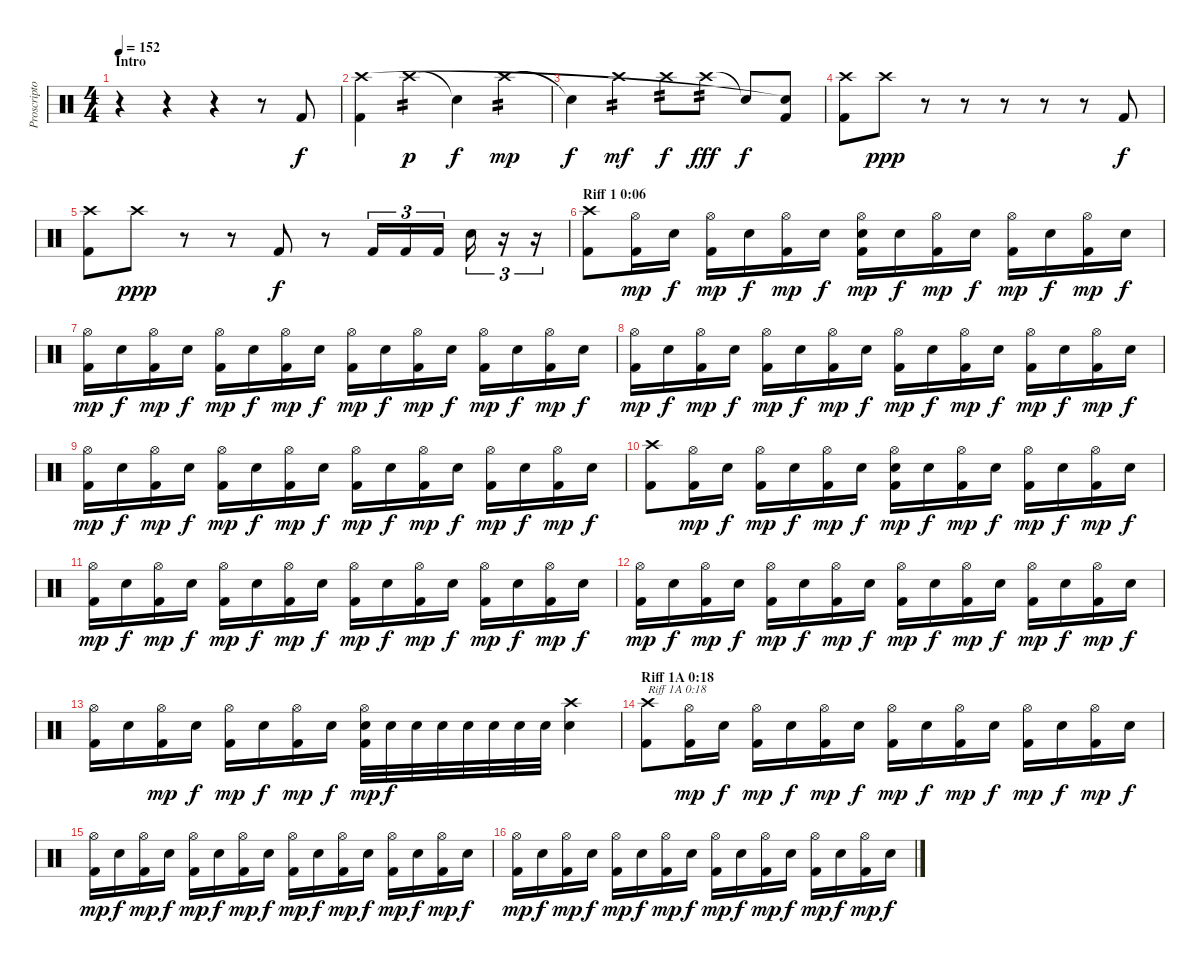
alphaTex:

\track ("Proscriptor (Drums)" "Proscripto") {instrument percussion}
\staff {score}
\articulation defaults
\ts (4 4)
\section ("" "Intro")
\tempo 152
\clef neutral
\ks c
r.4{dy f} r.4 r.4 r.8 "Kick (hit) 2".8 |
("Kick (hit) 2" "Crash high (hit)").4 "Crash high (hit)".4{tp 2 dy p} "Snare (hit)"{t}.4{dy f} "Crash high (hit)".4{tp 2 dy mp} |
"Snare (hit)"{t}.4{dy f} "Crash high (hit)".4{tp 2 dy mf} "Crash high (hit)".8{tp 2 dy f} "Crash high (hit)".8{tp 2 dy fff} "Snare (hit)"{t}.8{dy f} ("Kick (hit) 2" "Snare (hit)"{t}).8 |
("Kick (hit) 2" "Crash high (hit)").8 "Crash high (hit)".8{dy ppp} r.8 r.8 r.8 r.8 r.8 "Kick (hit) 2".8{dy f} |
("Kick (hit) 2" "Crash high (hit)").8 "Crash high (hit)".8{dy ppp} r.8 r.8 "Kick (hit) 2".8{dy f} r.8 "Kick (hit) 2".16{tu (3 2)} "Kick (hit) 2".16{tu (3 2)} "Kick (hit) 2".16{tu (3 2)} "Electric Snare (hit)".16{tu (3 2)} r.16{tu (3 2)} r.16{tu (3 2)} |
\section ("" "Riff 1 0:06")
("Kick (hit) 2" "Crash high (hit)").8 ("Kick (hit) 2" "Hi-Hat (open)").16{dy mp} "Electric Snare (hit)".16{dy f} ("Kick (hit) 2" "Hi-Hat (open)").16{dy mp} "Electric Snare (hit)".16{dy f} ("Kick (hit) 2" "Hi-Hat (open)").16{dy mp} "Electric Snare (hit)".16{dy f} ("Kick (hit) 2" "Electric Snare (hit)" "Hi-Hat (open)").16{dy mp} "Electric Snare (hit)".16{dy f} ("Kick (hit) 2" "Hi-Hat (open)").16{dy mp} "Electric Snare (hit)".16{dy f} ("Kick (hit) 2" "Hi-Hat (open)").16{dy mp} "Electric Snare (hit)".16{dy f} ("Kick (hit) 2" "Hi-Hat (open)").16{dy mp} "Electric Snare (hit)".16{dy f} |
("Kick (hit) 2" "Hi-Hat (open)").16{dy mp} "Electric Snare (hit)".16{dy f} ("Kick (hit) 2" "Hi-Hat (open)").16{dy mp} "Electric Snare (hit)".16{dy f} ("Kick (hit) 2" "Hi-Hat (open)").16{dy mp} "Electric Snare (hit)".16{dy f} ("Kick (hit) 2" "Hi-Hat (open)").16{dy mp} "Electric Snare (hit)".16{dy f} ("Kick (hit) 2" "Hi-Hat (open)").16{dy mp} "Electric Snare (hit)".16{dy f} ("Kick (hit) 2" "Hi-Hat (open)").16{dy mp} "Electric Snare (hit)".16{dy f} ("Kick (hit) 2" "Hi-Hat (open)").16{dy mp} "Electric Snare (hit)".16{dy f} ("Kick (hit) 2" "Hi-Hat (open)").16{dy mp} "Electric Snare (hit)".16{dy f} |
("Kick (hit) 2" "Hi-Hat (open)").16{dy mp} "Electric Snare (hit)".16{dy f} ("Kick (hit) 2" "Hi-Hat (open)").16{dy mp} "Electric Snare (hit)".16{dy f} ("Kick (hit) 2" "Hi-Hat (open)").16{dy mp} "Electric Snare (hit)".16{dy f} ("Kick (hit) 2" "Hi-Hat (open)").16{dy mp} "Electric Snare (hit)".16{dy f} ("Kick (hit) 2" "Hi-Hat (open)").16{dy mp} "Electric Snare (hit)".16{dy f} ("Kick (hit) 2" "Hi-Hat (open)").16{dy mp} "Electric Snare (hit)".16{dy f} ("Kick (hit) 2" "Hi-Hat (open)").16{dy mp} "Electric Snare (hit)".16{dy f} ("Kick (hit) 2" "Hi-Hat (open)").16{dy mp} "Electric Snare (hit)".16{dy f} |
("Kick (hit) 2" "Hi-Hat (open)").16{dy mp} "Electric Snare (hit)".16{dy f} ("Kick (hit) 2" "Hi-Hat (open)").16{dy mp} "Electric Snare (hit)".16{dy f} ("Kick (hit) 2" "Hi-Hat (open)").16{dy mp} "Electric Snare (hit)".16{dy f} ("Kick (hit) 2" "Hi-Hat (open)").16{dy mp} "Electric Snare (hit)".16{dy f} ("Kick (hit) 2" "Hi-Hat (open)").16{dy mp} "Electric Snare (hit)".16{dy f} ("Kick (hit) 2" "Hi-Hat (open)").16{dy mp} "Electric Snare (hit)".16{dy f} ("Kick (hit) 2" "Hi-Hat (open)").16{dy mp} "Electric Snare (hit)".16{dy f} ("Kick (hit) 2" "Hi-Hat (open)").16{dy mp} "Electric Snare (hit)".16{dy f} |
("Kick (hit) 2" "Crash high (hit)").8 ("Kick (hit) 2" "Hi-Hat (open)").16{dy mp} "Electric Snare (hit)".16{dy f} ("Kick (hit) 2" "Hi-Hat (open)").16{dy mp} "Electric Snare (hit)".16{dy f} ("Kick (hit) 2" "Hi-Hat (open)").16{dy mp} "Electric Snare (hit)".16{dy f} ("Kick (hit) 2" "Electric Snare (hit)" "Hi-Hat (open)").16{dy mp} "Electric Snare (hit)".16{dy f} ("Kick (hit) 2" "Hi-Hat (open)").16{dy mp} "Electric Snare (hit)".16{dy f} ("Kick (hit) 2" "Hi-Hat (open)").16{dy mp} "Electric Snare (hit)".16{dy f} ("Kick (hit) 2" "Hi-Hat (open)").16{dy mp} "Electric Snare (hit)".16{dy f} |
("Kick (hit) 2" "Hi-Hat (open)").16{dy mp} "Electric Snare (hit)".16{dy f} ("Kick (hit) 2" "Hi-Hat (open)").16{dy mp} "Electric Snare (hit)".16{dy f} ("Kick (hit) 2" "Hi-Hat (open)").16{dy mp} "Electric Snare (hit)".16{dy f} ("Kick (hit) 2" "Hi-Hat (open)").16{dy mp} "Electric Snare (hit)".16{dy f} ("Kick (hit) 2" "Hi-Hat (open)").16{dy mp} "Electric Snare (hit)".16{dy f} ("Kick (hit) 2" "Hi-Hat (open)").16{dy mp} "Electric Snare (hit)".16{dy f} ("Kick (hit) 2" "Hi-Hat (open)").16{dy mp} "Electric Snare (hit)".16{dy f} ("Kick (hit) 2" "Hi-Hat (open)").16{dy mp} "Electric Snare (hit)".16{dy f} |
("Kick (hit) 2" "Hi-Hat (open)").16{dy mp} "Electric Snare (hit)".16{dy f} ("Kick (hit) 2" "Hi-Hat (open)").16{dy mp} "Electric Snare (hit)".16{dy f} ("Kick (hit) 2" "Hi-Hat (open)").16{dy mp} "Electric Snare (hit)".16{dy f} ("Kick (hit) 2" "Hi-Hat (open)").16{dy mp} "Electric Snare (hit)".16{dy f} ("Kick (hit) 2" "Hi-Hat (open)").16{dy mp} "Electric Snare (hit)".16{dy f} ("Kick (hit) 2" "Hi-Hat (open)").16{dy mp} "Electric Snare (hit)".16{dy f} ("Kick (hit) 2" "Hi-Hat (open)").16{dy mp} "Electric Snare (hit)".16{dy f} ("Kick (hit) 2" "Hi-Hat (open)").16{dy mp} "Electric Snare (hit)".16{dy f} |
("Kick (hit) 2" "Hi-Hat (open)").16 "Electric Snare (hit)".16 ("Kick (hit) 2" "Hi-Hat (open)").16{dy mp} "Electric Snare (hit)".16{dy f} ("Kick (hit) 2" "Hi-Hat (open)").16{dy mp} "Electric Snare (hit)".16{dy f} ("Kick (hit) 2" "Hi-Hat (open)").16{dy mp} "Electric Snare (hit)".16{dy f} ("Kick (hit) 2" "Electric Snare (hit)" "Hi-Hat (open)").32{dy mp} "Electric Snare (hit)".32{dy f} "Electric Snare (hit)".32 "Electric Snare (hit)".32 "Electric Snare (hit)".32 "Electric Snare (hit)".32 "Electric Snare (hit)".32 "Electric Snare (hit)".32 ("Electric Snare (hit)" "Crash high (hit)").4 |
\section ("" "Riff 1A 0:18")
("Kick (hit) 2" "Crash high (hit)").8{txt "Riff 1A 0:18"} ("Kick (hit) 2" "Hi-Hat (open)").16{dy mp} "Electric Snare (hit)".16{dy f} ("Kick (hit) 2" "Hi-Hat (open)").16{dy mp} "Electric Snare (hit)".16{dy f} ("Kick (hit) 2" "Hi-Hat (open)").16{dy mp} "Electric Snare (hit)".16{dy f} ("Kick (hit) 2" "Hi-Hat (open)").16{dy mp} "Electric Snare (hit)".16{dy f} ("Kick (hit) 2" "Hi-Hat (open)").16{dy mp} "Electric Snare (hit)".16{dy f} ("Kick (hit) 2" "Hi-Hat (open)").16{dy mp} "Electric Snare (hit)".16{dy f} ("Kick (hit) 2" "Hi-Hat (open)").16{dy mp} "Electric Snare (hit)".16{dy f} |
("Kick (hit) 2" "Hi-Hat (open)").16{dy mp} "Electric Snare (hit)".16{dy f} ("Kick (hit) 2" "Hi-Hat (open)").16{dy mp} "Electric Snare (hit)".16{dy f} ("Kick (hit) 2" "Hi-Hat (open)").16{dy mp} "Electric Snare (hit)".16{dy f} ("Kick (hit) 2" "Hi-Hat (open)").16{dy mp} "Electric Snare (hit)".16{dy f} ("Kick (hit) 2" "Hi-Hat (open)").16{dy mp} "Electric Snare (hit)".16{dy f} ("Kick (hit) 2" "Hi-Hat (open)").16{dy mp} "Electric Snare (hit)".16{dy f} ("Kick (hit) 2" "Hi-Hat (open)").16{dy mp} "Electric Snare (hit)".16{dy f} ("Kick (hit) 2" "Hi-Hat (open)").16{dy mp} "Electric Snare (hit)".16{dy f} |
("Kick (hit) 2" "Hi-Hat (open)").16{dy mp} "Electric Snare (hit)".16{dy f} ("Kick (hit) 2" "Hi-Hat (open)").16{dy mp} "Electric Snare (hit)".16{dy f} ("Kick (hit) 2" "Hi-Hat (open)").16{dy mp} "Electric Snare (hit)".16{dy f} ("Kick (hit) 2" "Hi-Hat (open)").16{dy mp} "Electric Snare (hit)".16{dy f} ("Kick (hit) 2" "Hi-Hat (open)").16{dy mp} "Electric Snare (hit)".16{dy f} ("Kick (hit) 2" "Hi-Hat (open)").16{dy mp} "Electric Snare (hit)".16{dy f} ("Kick (hit) 2" "Hi-Hat (open)").16{dy mp} "Electric Snare (hit)".16{dy f} ("Kick (hit) 2" "Hi-Hat (open)").16{dy mp} "Electric Snare (hit)".16{dy f}
